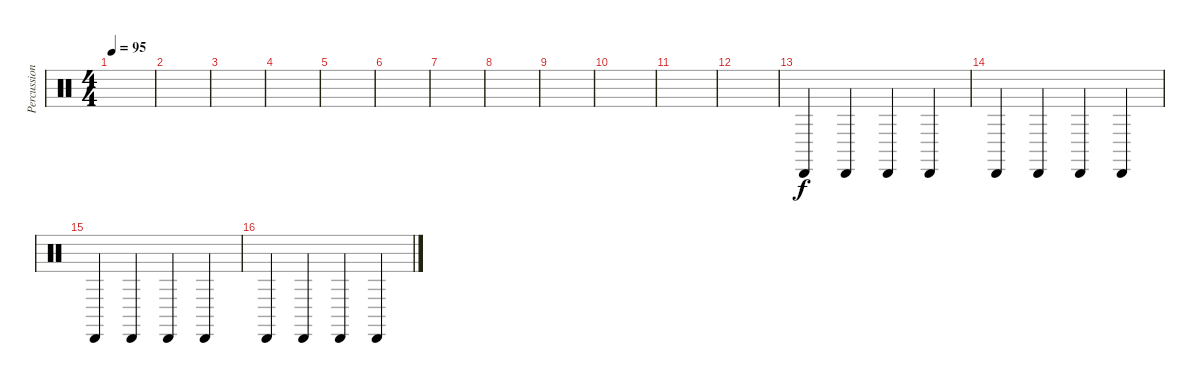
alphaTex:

\track ("Percussions" "Percussion") {instrument percussion}
\staff {score}
\articulation defaults
\ts (4 4)
\tempo 95
\clef neutral
\ks c
|
|
|
|
|
|
|
|
|
|
|
|
"Cabasa (hit)".4 "Cabasa (hit)".4 "Cabasa (hit)".4 "Cabasa (hit)".4 |
"Cabasa (hit)".4 "Cabasa (hit)".4 "Cabasa (hit)".4 "Cabasa (hit)".4 |
"Cabasa (hit)".4 "Cabasa (hit)".4 "Cabasa (hit)".4 "Cabasa (hit)".4 |
"Cabasa (hit)".4 "Cabasa (hit)".4 "Cabasa (hit)".4 "Cabasa (hit)".4
